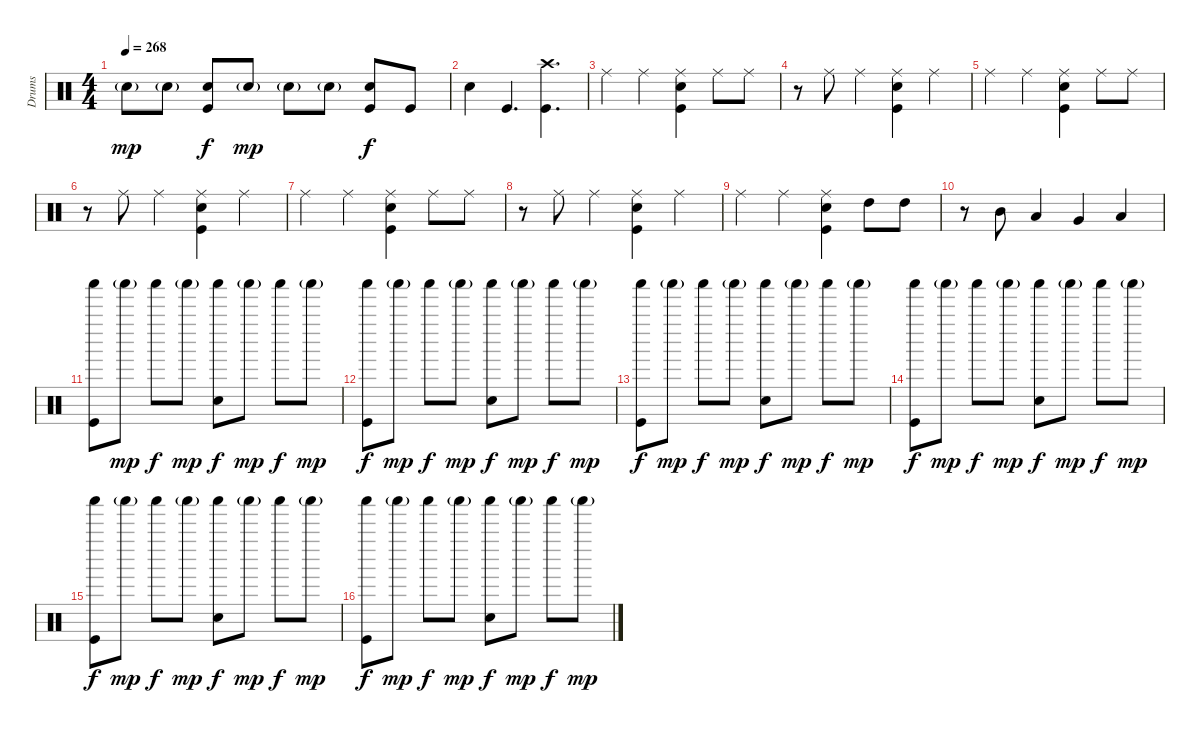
\track ("Drums" "Drums") {instrument percussion}
\staff {score}
\articulation defaults
\ts (4 4)
\tempo 268
\clef neutral
\ks c "Electric Snare (hit)"{g}.8{dy mp} "Electric Snare (hit)"{g}.8
("Electric Snare (hit)" "Kick (hit)").8{dy f} "Electric Snare (hit)"{g}.8{dy mp} "Electric Snare (hit)"{g}.8 "Electric Snare (hit)"{g}.8 ("Electric Snare (hit)" "Kick (hit)").8{dy f} "Kick (hit)".8 |
"Electric Snare (hit)".4 "Kick (hit)".4{d} ("Crash high (hit)" "Kick (hit)").4{d} |
"Ride (middle)".4 "Ride (middle)".4 ("Ride (middle)" "Electric Snare (hit)" "Kick (hit)").4 "Ride (middle)".8 "Ride (middle)".8 |
r.8 "Ride (middle)".8 "Ride (middle)".4 ("Ride (middle)" "Electric Snare (hit)" "Kick (hit)").4 "Ride (middle)".4 |
"Ride (middle)".4 "Ride (middle)".4 ("Ride (middle)" "Electric Snare (hit)" "Kick (hit)").4 "Ride (middle)".8 "Ride (middle)".8 |
r.8 "Ride (middle)".8 "Ride (middle)".4 ("Ride (middle)" "Electric Snare (hit)" "Kick (hit)").4 "Ride (middle)".4 |
"Ride (middle)".4 "Ride (middle)".4 ("Ride (middle)" "Electric Snare (hit)" "Kick (hit)").4 "Ride (middle)".8 "Ride (middle)".8 |
r.8 "Ride (middle)".8 "Ride (middle)".4 ("Ride (middle)" "Electric Snare (hit)" "Kick (hit)").4 "Ride (middle)".4 |
"Ride (middle)".4 "Ride (middle)".4 ("Ride (middle)" "Electric Snare (hit)" "Kick (hit)").4 "High Tom (hit)".8 "High Tom (hit)".8 |
r.8 "Mid Tom (hit)".8 "Low Tom (hit)".4 "Very Low Tom (hit)".4 "Low Floor Tom (hit)".4 |
("Shaker (hit)" "Kick (hit)").8 "Shaker (hit)"{g}.8{dy mp} "Shaker (hit)".8{dy f} "Shaker (hit)"{g}.8{dy mp} ("Shaker (hit)" "Electric Snare (hit)").8{dy f} "Shaker (hit)"{g}.8{dy mp} "Shaker (hit)".8{dy f} "Shaker (hit)"{g}.8{dy mp} |
("Shaker (hit)" "Kick (hit)").8{dy f} "Shaker (hit)"{g}.8{dy mp} "Shaker (hit)".8{dy f} "Shaker (hit)"{g}.8{dy mp} ("Shaker (hit)" "Electric Snare (hit)").8{dy f} "Shaker (hit)"{g}.8{dy mp} "Shaker (hit)".8{dy f} "Shaker (hit)"{g}.8{dy mp} |
("Shaker (hit)" "Kick (hit)").8{dy f} "Shaker (hit)"{g}.8{dy mp} "Shaker (hit)".8{dy f} "Shaker (hit)"{g}.8{dy mp} ("Shaker (hit)" "Electric Snare (hit)").8{dy f} "Shaker (hit)"{g}.8{dy mp} "Shaker (hit)".8{dy f} "Shaker (hit)"{g}.8{dy mp} |
("Shaker (hit)" "Kick (hit)").8{dy f} "Shaker (hit)"{g}.8{dy mp} "Shaker (hit)".8{dy f} "Shaker (hit)"{g}.8{dy mp} ("Shaker (hit)" "Electric Snare (hit)").8{dy f} "Shaker (hit)"{g}.8{dy mp} "Shaker (hit)".8{dy f} "Shaker (hit)"{g}.8{dy mp} |
("Shaker (hit)" "Kick (hit)").8{dy f} "Shaker (hit)"{g}.8{dy mp} "Shaker (hit)".8{dy f} "Shaker (hit)"{g}.8{dy mp} ("Shaker (hit)" "Electric Snare (hit)").8{dy f} "Shaker (hit)"{g}.8{dy mp} "Shaker (hit)".8{dy f} "Shaker (hit)"{g}.8{dy mp} |
("Shaker (hit)" "Kick (hit)").8{dy f} "Shaker (hit)"{g}.8{dy mp} "Shaker (hit)".8{dy f} "Shaker (hit)"{g}.8{dy mp} ("Shaker (hit)" "Electric Snare (hit)").8{dy f} "Shaker (hit)"{g}.8{dy mp} "Shaker (hit)".8{dy f} "Shaker (hit)"{g}.8{dy mp}
